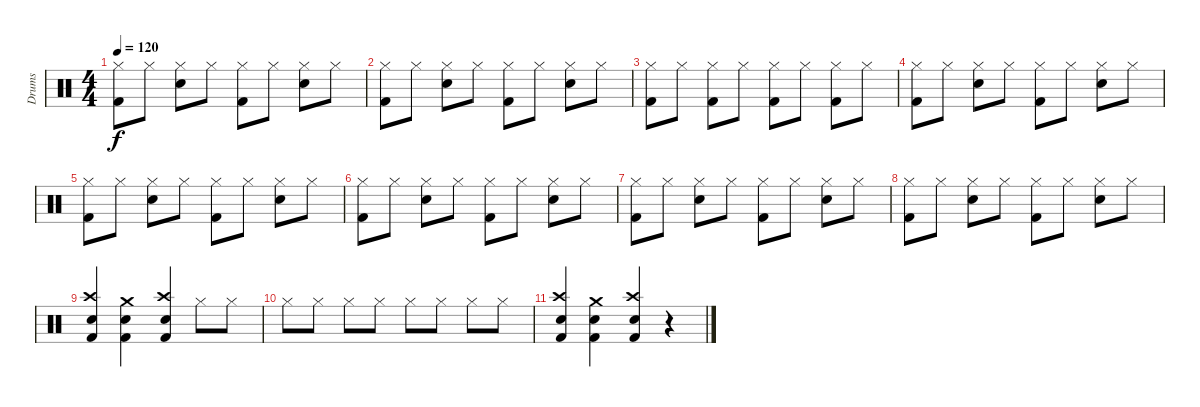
\track ("Drums" "Drums") {instrument percussion}
\staff {score}
\articulation defaults
\ts (4 4)
\tempo 120
\clef neutral
\ks c
("Hi-Hat (closed)" "Kick (hit) 2").8{dy f} "Hi-Hat (closed)".8 ("Hi-Hat (closed)" "Snare (hit) 2").8 "Hi-Hat (closed)".8 ("Hi-Hat (closed)" "Kick (hit) 2").8 "Hi-Hat (closed)".8 ("Hi-Hat (closed)" "Snare (hit) 2").8 "Hi-Hat (closed)".8 |
("Hi-Hat (closed)" "Kick (hit) 2").8 "Hi-Hat (closed)".8 ("Hi-Hat (closed)" "Snare (hit) 2").8 "Hi-Hat (closed)".8 ("Hi-Hat (closed)" "Kick (hit) 2").8 "Hi-Hat (closed)".8 ("Hi-Hat (closed)" "Snare (hit) 2").8 "Hi-Hat (closed)".8 |
("Hi-Hat (closed)" "Kick (hit) 2").8 "Hi-Hat (closed)".8 ("Hi-Hat (closed)" "Kick (hit) 2").8 "Hi-Hat (closed)".8 ("Hi-Hat (closed)" "Kick (hit) 2").8 "Hi-Hat (closed)".8 ("Hi-Hat (closed)" "Kick (hit) 2").8 "Hi-Hat (closed)".8 |
("Hi-Hat (closed)" "Kick (hit) 2").8 "Hi-Hat (closed)".8 ("Hi-Hat (closed)" "Snare (hit) 2").8 "Hi-Hat (closed)".8 ("Hi-Hat (closed)" "Kick (hit) 2").8 "Hi-Hat (closed)".8 ("Hi-Hat (closed)" "Snare (hit) 2").8 "Hi-Hat (closed)".8 |
("Hi-Hat (closed)" "Kick (hit) 2").8 "Hi-Hat (closed)".8 ("Hi-Hat (closed)" "Snare (hit) 2").8 "Hi-Hat (closed)".8 ("Hi-Hat (closed)" "Kick (hit) 2").8 "Hi-Hat (closed)".8 ("Hi-Hat (closed)" "Snare (hit) 2").8 "Hi-Hat (closed)".8 |
("Hi-Hat (closed)" "Kick (hit) 2").8 "Hi-Hat (closed)".8 ("Hi-Hat (closed)" "Snare (hit) 2").8 "Hi-Hat (closed)".8 ("Hi-Hat (closed)" "Kick (hit) 2").8 "Hi-Hat (closed)".8 ("Hi-Hat (closed)" "Snare (hit) 2").8 "Hi-Hat (closed)".8 |
("Hi-Hat (closed)" "Kick (hit) 2").8 "Hi-Hat (closed)".8 ("Hi-Hat (closed)" "Snare (hit) 2").8 "Hi-Hat (closed)".8 ("Hi-Hat (closed)" "Kick (hit) 2").8 "Hi-Hat (closed)".8 ("Hi-Hat (closed)" "Snare (hit) 2").8 "Hi-Hat (closed)".8 |
("Hi-Hat (closed)" "Kick (hit) 2").8 "Hi-Hat (closed)".8 ("Hi-Hat (closed)" "Snare (hit) 2").8 "Hi-Hat (closed)".8 ("Hi-Hat (closed)" "Kick (hit) 2").8 "Hi-Hat (closed)".8 ("Hi-Hat (closed)" "Snare (hit) 2").8 "Hi-Hat (closed)".8 |
("Crash high (hit)" "Electric Snare (hit)" "Kick (hit) 2").4 ("Crash medium (hit)" "Electric Snare (hit)" "Kick (hit) 2").4 ("Crash high (hit)" "Electric Snare (hit)" "Kick (hit) 2").4 "Hi-Hat (closed)".8 "Hi-Hat (closed)".8 |
"Hi-Hat (closed)".8 "Hi-Hat (closed)".8 "Hi-Hat (closed)".8 "Hi-Hat (closed)".8 "Hi-Hat (closed)".8 "Hi-Hat (closed)".8 "Hi-Hat (closed)".8 "Hi-Hat (closed)".8 |
("Crash high (hit)" "Electric Snare (hit)" "Kick (hit) 2").4 ("Crash medium (hit)" "Electric Snare (hit)" "Kick (hit) 2").4 ("Crash high (hit)" "Electric Snare (hit)" "Kick (hit) 2").4 r.4
